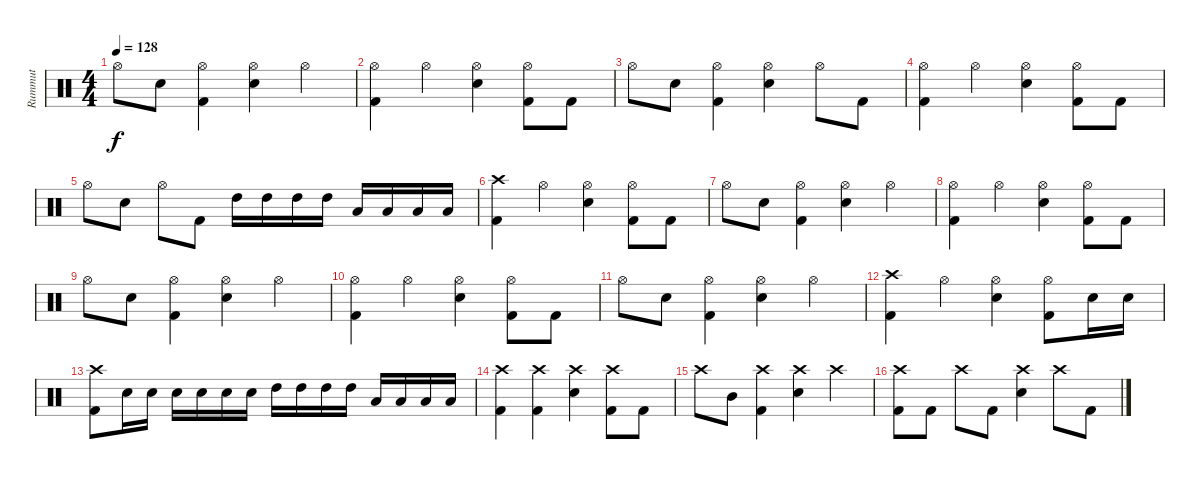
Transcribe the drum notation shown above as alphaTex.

\track ("Rummut" "Rummut") {instrument percussion}
\staff {score}
\articulation defaults
\ts (4 4)
\tempo 128
\clef neutral
\ks aminor "Hi-Hat (open)".8{dy f} "Electric Snare (hit)".8
("Hi-Hat (open)" "Kick (hit) 2").4 ("Hi-Hat (open)" "Electric Snare (hit)").4 "Hi-Hat (open)".4 |
("Hi-Hat (open)" "Kick (hit) 2").4 "Hi-Hat (open)".4 ("Hi-Hat (open)" "Electric Snare (hit)").4 ("Hi-Hat (open)" "Kick (hit) 2").8 "Kick (hit) 2".8 |
"Hi-Hat (open)".8 "Electric Snare (hit)".8 ("Hi-Hat (open)" "Kick (hit) 2").4 ("Hi-Hat (open)" "Electric Snare (hit)").4 "Hi-Hat (open)".8 "Kick (hit) 2".8 |
("Hi-Hat (open)" "Kick (hit) 2").4 "Hi-Hat (open)".4 ("Hi-Hat (open)" "Electric Snare (hit)").4 ("Hi-Hat (open)" "Kick (hit) 2").8 "Kick (hit) 2".8 |
"Hi-Hat (open)".8 "Electric Snare (hit)".8 "Hi-Hat (open)".8 "Kick (hit) 2".8 "High Tom (hit)".16 "High Tom (hit)".16 "High Tom (hit)".16 "High Tom (hit)".16 "Low Tom (hit)".16 "Low Tom (hit)".16 "Low Tom (hit)".16 "Low Tom (hit)".16 |
("Crash high (hit)" "Kick (hit) 2").4 "Hi-Hat (open)".4 ("Hi-Hat (open)" "Electric Snare (hit)").4 ("Hi-Hat (open)" "Kick (hit) 2").8 "Kick (hit) 2".8 |
"Hi-Hat (open)".8 "Electric Snare (hit)".8 ("Hi-Hat (open)" "Kick (hit) 2").4 ("Hi-Hat (open)" "Electric Snare (hit)").4 "Hi-Hat (open)".4 |
("Hi-Hat (open)" "Kick (hit) 2").4 "Hi-Hat (open)".4 ("Hi-Hat (open)" "Electric Snare (hit)").4 ("Hi-Hat (open)" "Kick (hit) 2").8 "Kick (hit) 2".8 |
"Hi-Hat (open)".8 "Electric Snare (hit)".8 ("Hi-Hat (open)" "Kick (hit) 2").4 ("Hi-Hat (open)" "Electric Snare (hit)").4 "Hi-Hat (open)".4 |
("Hi-Hat (open)" "Kick (hit) 2").4 "Hi-Hat (open)".4 ("Hi-Hat (open)" "Electric Snare (hit)").4 ("Hi-Hat (open)" "Kick (hit) 2").8 "Kick (hit) 2".8 |
"Hi-Hat (open)".8 "Electric Snare (hit)".8 ("Hi-Hat (open)" "Kick (hit) 2").4 ("Hi-Hat (open)" "Electric Snare (hit)").4 "Hi-Hat (open)".4 |
("Crash high (hit)" "Kick (hit) 2").4 "Hi-Hat (open)".4 ("Hi-Hat (open)" "Electric Snare (hit)").4 ("Hi-Hat (open)" "Kick (hit) 2").8 "Electric Snare (hit)".16 "Electric Snare (hit)".16 |
("Crash high (hit)" "Kick (hit) 2").8 "Electric Snare (hit)".16 "Electric Snare (hit)".16 "Electric Snare (hit)".16 "Electric Snare (hit)".16 "Electric Snare (hit)".16 "Electric Snare (hit)".16 "High Tom (hit)".16 "High Tom (hit)".16 "High Tom (hit)".16 "High Tom (hit)".16 "Low Tom (hit)".16 "Low Tom (hit)".16 "Low Tom (hit)".16 "Low Tom (hit)".16 |
("Crash high (hit)" "Kick (hit) 2").4 ("Crash high (hit)" "Kick (hit) 2").4 ("Crash high (hit)" "Electric Snare (hit)").4 ("Crash high (hit)" "Kick (hit) 2").8 "Kick (hit) 2".8 |
"Crash high (hit)".8 "Mid Tom (hit)".8 ("Crash high (hit)" "Kick (hit) 2").4 ("Crash high (hit)" "Electric Snare (hit)").4 "Crash high (hit)".4 |
("Crash high (hit)" "Kick (hit) 2").8 "Kick (hit) 2".8 "Crash high (hit)".8 "Kick (hit) 2".8 ("Crash high (hit)" "Electric Snare (hit)").4 "Crash high (hit)".8 "Kick (hit) 2".8
